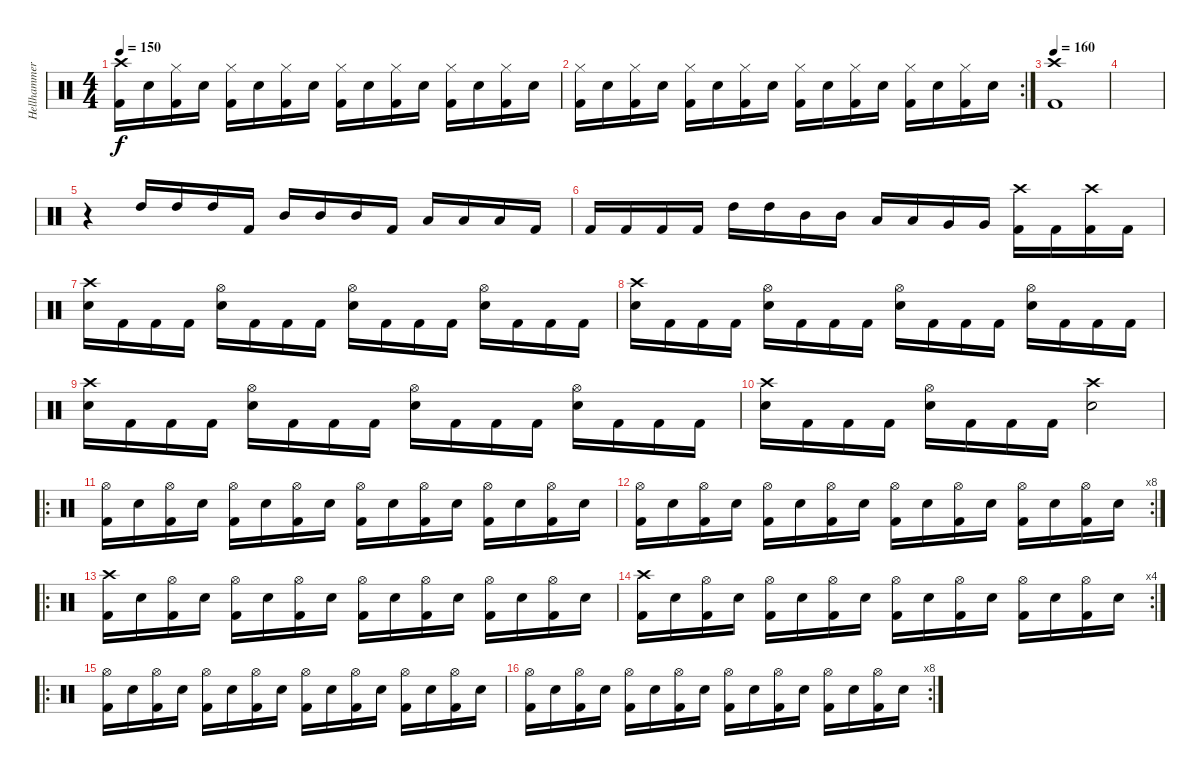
\track ("Hellhammer" "Hellhammer") {instrument percussion}
\staff {score}
\articulation defaults
\ts (4 4)
\tempo 150
\clef neutral
\ks c
("Kick (hit) 2" "Crash high (hit)").16{dy f} "Snare (hit) 2".16 ("Kick (hit) 2" "Hi-Hat (closed)").16 "Snare (hit) 2".16 ("Kick (hit) 2" "Hi-Hat (closed)").16 "Snare (hit) 2".16 ("Kick (hit) 2" "Hi-Hat (closed)").16 "Snare (hit) 2".16 ("Kick (hit) 2" "Hi-Hat (closed)").16 "Snare (hit) 2".16 ("Kick (hit) 2" "Hi-Hat (closed)").16 "Snare (hit) 2".16 ("Kick (hit) 2" "Hi-Hat (closed)").16 "Snare (hit) 2".16 ("Kick (hit) 2" "Hi-Hat (closed)").16 "Snare (hit) 2".16 |
\rc 2
("Kick (hit) 2" "Hi-Hat (closed)").16 "Snare (hit) 2".16 ("Kick (hit) 2" "Hi-Hat (closed)").16 "Snare (hit) 2".16 ("Kick (hit) 2" "Hi-Hat (closed)").16 "Snare (hit) 2".16 ("Kick (hit) 2" "Hi-Hat (closed)").16 "Snare (hit) 2".16 ("Kick (hit) 2" "Hi-Hat (closed)").16 "Snare (hit) 2".16 ("Kick (hit) 2" "Hi-Hat (closed)").16 "Snare (hit) 2".16 ("Kick (hit) 2" "Hi-Hat (closed)").16 "Snare (hit) 2".16 ("Kick (hit) 2" "Hi-Hat (closed)").16 "Snare (hit) 2".16 |
\tempo 160
("Kick (hit) 2" "Crash high (hit)").1 |
|
r.4 "High Tom (hit)".16 "High Tom (hit)".16 "High Tom (hit)".16 "Kick (hit) 2".16 "Mid Tom (hit)".16 "Mid Tom (hit)".16 "Mid Tom (hit)".16 "Kick (hit) 2".16 "Low Tom (hit)".16 "Low Tom (hit)".16 "Low Tom (hit)".16 "Kick (hit) 2".16 |
"Kick (hit) 2".16 "Kick (hit) 2".16 "Kick (hit) 2".16 "Kick (hit) 2".16 "High Tom (hit)".16 "High Tom (hit)".16 "Mid Tom (hit)".16 "Mid Tom (hit)".16 "Low Tom (hit)".16 "Low Tom (hit)".16 "Very Low Tom (hit)".16 "Very Low Tom (hit)".16 ("Crash high (hit)" "Kick (hit) 2").16 "Kick (hit) 2".16 ("Crash high (hit)" "Kick (hit) 2").16 "Kick (hit) 2".16 |
("Crash high (hit)" "Snare (hit) 2").16 "Kick (hit) 2".16 "Kick (hit) 2".16 "Kick (hit) 2".16 ("Hi-Hat (open)" "Snare (hit) 2").16 "Kick (hit) 2".16 "Kick (hit) 2".16 "Kick (hit) 2".16 ("Hi-Hat (open)" "Snare (hit) 2").16 "Kick (hit) 2".16 "Kick (hit) 2".16 "Kick (hit) 2".16 ("Hi-Hat (open)" "Snare (hit) 2").16 "Kick (hit) 2".16 "Kick (hit) 2".16 "Kick (hit) 2".16 |
("Crash high (hit)" "Snare (hit) 2").16 "Kick (hit) 2".16 "Kick (hit) 2".16 "Kick (hit) 2".16 ("Hi-Hat (open)" "Snare (hit) 2").16 "Kick (hit) 2".16 "Kick (hit) 2".16 "Kick (hit) 2".16 ("Hi-Hat (open)" "Snare (hit) 2").16 "Kick (hit) 2".16 "Kick (hit) 2".16 "Kick (hit) 2".16 ("Hi-Hat (open)" "Snare (hit) 2").16 "Kick (hit) 2".16 "Kick (hit) 2".16 "Kick (hit) 2".16 |
("Crash high (hit)" "Snare (hit) 2").16 "Kick (hit) 2".16 "Kick (hit) 2".16 "Kick (hit) 2".16 ("Hi-Hat (open)" "Snare (hit) 2").16 "Kick (hit) 2".16 "Kick (hit) 2".16 "Kick (hit) 2".16 ("Hi-Hat (open)" "Snare (hit) 2").16 "Kick (hit) 2".16 "Kick (hit) 2".16 "Kick (hit) 2".16 ("Hi-Hat (open)" "Snare (hit) 2").16 "Kick (hit) 2".16 "Kick (hit) 2".16 "Kick (hit) 2".16 |
("Crash high (hit)" "Snare (hit) 2").16 "Kick (hit) 2".16 "Kick (hit) 2".16 "Kick (hit) 2".16 ("Hi-Hat (open)" "Snare (hit) 2").16 "Kick (hit) 2".16 "Kick (hit) 2".16 "Kick (hit) 2".16 ("Crash high (hit)" "Snare (hit) 2").2 |
\ro
("Kick (hit) 2" "Hi-Hat (open)").16 "Snare (hit) 2".16 ("Kick (hit) 2" "Hi-Hat (open)").16 "Snare (hit) 2".16 ("Kick (hit) 2" "Hi-Hat (open)").16 "Snare (hit) 2".16 ("Kick (hit) 2" "Hi-Hat (open)").16 "Snare (hit) 2".16 ("Kick (hit) 2" "Hi-Hat (open)").16 "Snare (hit) 2".16 ("Kick (hit) 2" "Hi-Hat (open)").16 "Snare (hit) 2".16 ("Kick (hit) 2" "Hi-Hat (open)").16 "Snare (hit) 2".16 ("Kick (hit) 2" "Hi-Hat (open)").16 "Snare (hit) 2".16 |
\rc 8
("Kick (hit) 2" "Hi-Hat (open)").16 "Snare (hit) 2".16 ("Kick (hit) 2" "Hi-Hat (open)").16 "Snare (hit) 2".16 ("Kick (hit) 2" "Hi-Hat (open)").16 "Snare (hit) 2".16 ("Kick (hit) 2" "Hi-Hat (open)").16 "Snare (hit) 2".16 ("Kick (hit) 2" "Hi-Hat (open)").16 "Snare (hit) 2".16 ("Kick (hit) 2" "Hi-Hat (open)").16 "Snare (hit) 2".16 ("Kick (hit) 2" "Hi-Hat (open)").16 "Snare (hit) 2".16 ("Kick (hit) 2" "Hi-Hat (open)").16 "Snare (hit) 2".16 |
\ro
("Kick (hit) 2" "Crash high (hit)").16 "Snare (hit) 2".16 ("Kick (hit) 2" "Hi-Hat (open)").16 "Snare (hit) 2".16 ("Kick (hit) 2" "Hi-Hat (open)").16 "Snare (hit) 2".16 ("Kick (hit) 2" "Hi-Hat (open)").16 "Snare (hit) 2".16 ("Kick (hit) 2" "Hi-Hat (open)").16 "Snare (hit) 2".16 ("Kick (hit) 2" "Hi-Hat (open)").16 "Snare (hit) 2".16 ("Kick (hit) 2" "Hi-Hat (open)").16 "Snare (hit) 2".16 ("Kick (hit) 2" "Hi-Hat (open)").16 "Snare (hit) 2".16 |
\rc 4
("Kick (hit) 2" "Crash high (hit)").16 "Snare (hit) 2".16 ("Kick (hit) 2" "Hi-Hat (open)").16 "Snare (hit) 2".16 ("Kick (hit) 2" "Hi-Hat (open)").16 "Snare (hit) 2".16 ("Kick (hit) 2" "Hi-Hat (open)").16 "Snare (hit) 2".16 ("Kick (hit) 2" "Hi-Hat (open)").16 "Snare (hit) 2".16 ("Kick (hit) 2" "Hi-Hat (open)").16 "Snare (hit) 2".16 ("Kick (hit) 2" "Hi-Hat (open)").16 "Snare (hit) 2".16 ("Kick (hit) 2" "Hi-Hat (open)").16 "Snare (hit) 2".16 |
\ro
("Kick (hit) 2" "Hi-Hat (open)").16 "Snare (hit) 2".16 ("Kick (hit) 2" "Hi-Hat (open)").16 "Snare (hit) 2".16 ("Kick (hit) 2" "Hi-Hat (open)").16 "Snare (hit) 2".16 ("Kick (hit) 2" "Hi-Hat (open)").16 "Snare (hit) 2".16 ("Kick (hit) 2" "Hi-Hat (open)").16 "Snare (hit) 2".16 ("Kick (hit) 2" "Hi-Hat (open)").16 "Snare (hit) 2".16 ("Kick (hit) 2" "Hi-Hat (open)").16 "Snare (hit) 2".16 ("Kick (hit) 2" "Hi-Hat (open)").16 "Snare (hit) 2".16 |
\rc 8
("Kick (hit) 2" "Hi-Hat (open)").16 "Snare (hit) 2".16 ("Kick (hit) 2" "Hi-Hat (open)").16 "Snare (hit) 2".16 ("Kick (hit) 2" "Hi-Hat (open)").16 "Snare (hit) 2".16 ("Kick (hit) 2" "Hi-Hat (open)").16 "Snare (hit) 2".16 ("Kick (hit) 2" "Hi-Hat (open)").16 "Snare (hit) 2".16 ("Kick (hit) 2" "Hi-Hat (open)").16 "Snare (hit) 2".16 ("Kick (hit) 2" "Hi-Hat (open)").16 "Snare (hit) 2".16 ("Kick (hit) 2" "Hi-Hat (open)").16 "Snare (hit) 2".16
